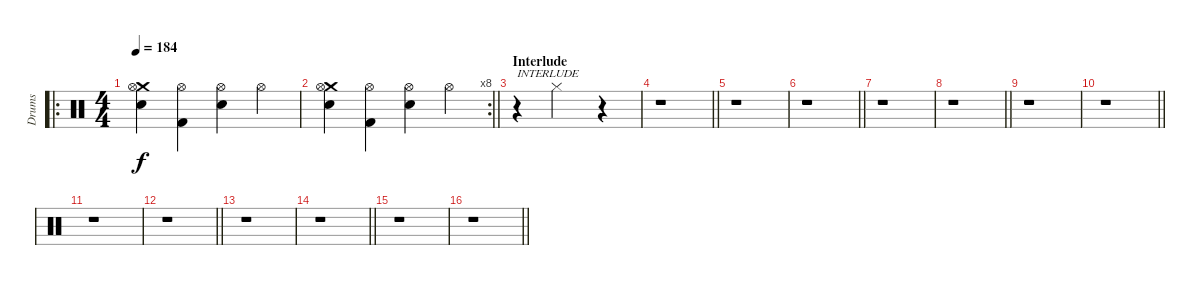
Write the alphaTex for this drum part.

\track ("Drums" "Drums") {instrument percussion}
\staff {score}
\articulation defaults
\ro
\ts (4 4)
\tempo 184
\clef neutral
\ks c
("Crash medium (hit)" "Hi-Hat (open)" "Electric Snare (hit)").4{dy f} ("Hi-Hat (open)" "Kick (hit) 2").4 ("Hi-Hat (open)" "Electric Snare (hit)").4 "Hi-Hat (open)".4 |
\rc 8
\barLineRight lightlight
("Crash medium (hit)" "Hi-Hat (open)" "Electric Snare (hit)").4 ("Hi-Hat (open)" "Kick (hit) 2").4 ("Hi-Hat (open)" "Electric Snare (hit)").4 "Hi-Hat (open)".4 |
\section ("" "Interlude")
r.4{txt "INTERLUDE"} "Hi-Hat (closed)".2 r.4 |
\barLineRight lightlight
r.1 |
r.1 |
\barLineRight lightlight
r.1 |
r.1 |
\barLineRight lightlight
r.1 |
r.1 |
\barLineRight lightlight
r.1 |
r.1 |
\barLineRight lightlight
r.1 |
r.1 |
\barLineRight lightlight
r.1 |
r.1 |
\barLineRight lightlight
r.1
